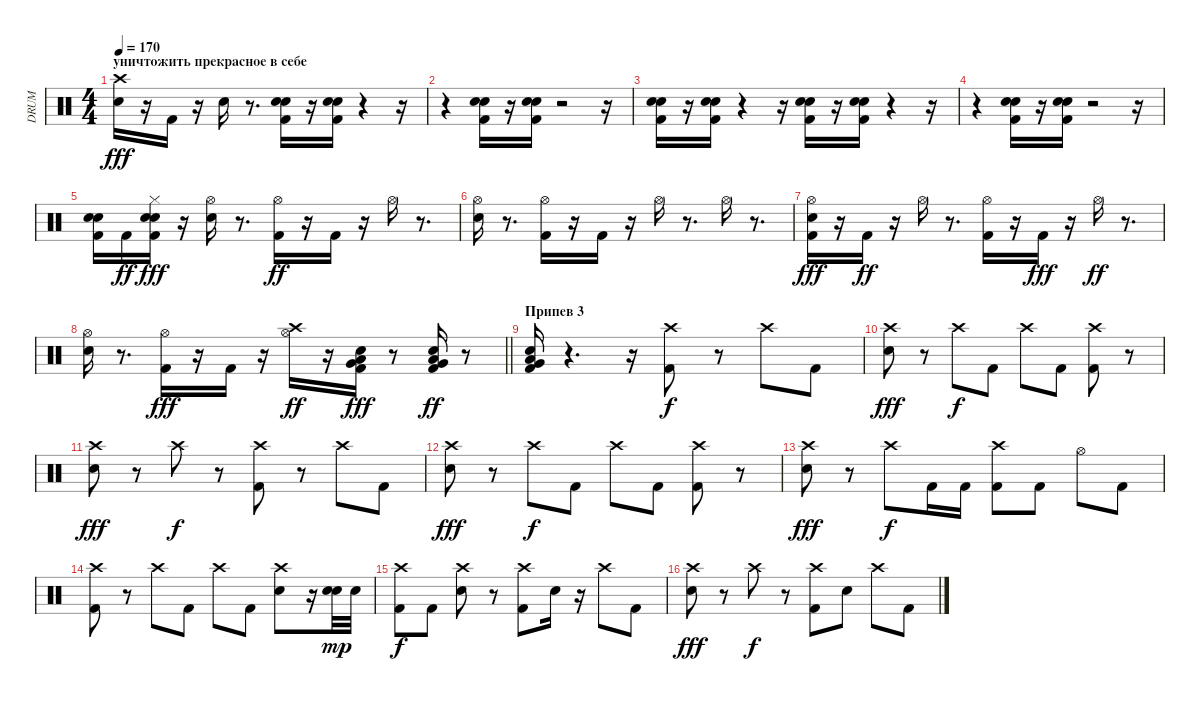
\track ("DRUM" "DRUM") {instrument percussion}
\staff {score}
\articulation defaults
\ts (4 4)
\section ("" "уничтожить прекрасное в себе")
\tempo 170
\clef neutral
\ks c
("Crash high (hit)" "Electric Snare (hit)").16{dy fff} r.16 "Kick (hit) 2".16 r.16 "Snare (hit) 2".16 r.8{d} ("Electric Snare (hit)" "Kick (hit) 2" "Snare (hit) 2").16 r.16 ("Electric Snare (hit)" "Kick (hit) 2" "Snare (hit) 2").16 r.4 r.16 |
r.4 ("Electric Snare (hit)" "Kick (hit) 2" "Snare (hit) 2").16 r.16 ("Electric Snare (hit)" "Kick (hit) 2" "Snare (hit) 2").16 r.2 r.16 |
("Electric Snare (hit)" "Kick (hit) 2" "Snare (hit) 2").16 r.16 ("Electric Snare (hit)" "Kick (hit) 2" "Snare (hit) 2").16 r.4 r.16 ("Electric Snare (hit)" "Kick (hit) 2" "Snare (hit) 2").16 r.16 ("Electric Snare (hit)" "Kick (hit) 2" "Snare (hit) 2").16 r.4 r.16 |
r.4 ("Electric Snare (hit)" "Kick (hit) 2" "Snare (hit) 2").16 r.16 ("Electric Snare (hit)" "Kick (hit) 2" "Snare (hit) 2").16 r.2 r.16 |
("Electric Snare (hit)" "Kick (hit) 2" "Snare (hit) 2").16 "Kick (hit) 2".16{dy ff} ("Hi-Hat (closed)" "Electric Snare (hit)" "Kick (hit) 2" "Snare (hit) 2").16{dy fff} r.16 ("Electric Snare (hit)" "Hi-Hat (open)").16 r.8{d} ("Kick (hit) 2" "Hi-Hat (open)").16{dy ff} r.16 "Kick (hit) 2".16 r.16 "Hi-Hat (open)".16 r.8{d} |
("Electric Snare (hit)" "Hi-Hat (open)").16 r.8{d} ("Hi-Hat (open)" "Kick (hit) 2").16 r.16 "Kick (hit) 2".16 r.16 "Hi-Hat (open)".16 r.8{d} "Hi-Hat (open)".16 r.8{d} |
("Hi-Hat (open)" "Kick (hit) 2" "Electric Snare (hit)").16{dy fff} r.16 "Kick (hit) 2".16{dy ff} r.16 "Hi-Hat (open)".16 r.8{d} ("Kick (hit) 2" "Hi-Hat (open)").16 r.16 "Kick (hit) 2".16{dy fff} r.16 "Hi-Hat (open)".16{dy ff} r.8{d} |
\barLineRight lightlight
("Electric Snare (hit)" "Hi-Hat (open)").16 r.8{d} ("Hi-Hat (open)" "Kick (hit) 2").16{dy fff} r.16 "Kick (hit) 2".16 r.16 ("Hi-Hat (open)" "Crash high (hit)").16{dy ff} r.16 ("Very Low Tom (hit)" "Low Floor Tom (hit)" "Snare (hit) 2" "Kick (hit) 2").16{dy fff} r.8 ("Very Low Tom (hit)" "Low Floor Tom (hit)" "Snare (hit) 2" "Kick (hit) 2").16{dy ff} r.8 |
\section ("" "Припев 3")
("Very Low Tom (hit)" "Low Floor Tom (hit)" "Snare (hit) 2" "Kick (hit) 2").16 r.4{d} r.16 ("Crash high (hit)" "Kick (hit) 2").8{dy f} r.8 "Crash high (hit)".8 "Kick (hit) 2".8 |
("Crash high (hit)" "Snare (hit) 2").8{dy fff} r.8 "Crash high (hit)".8{dy f} "Kick (hit) 2".8 "Crash high (hit)".8 "Kick (hit) 2".8 ("Crash high (hit)" "Kick (hit) 2").8 r.8 |
("Crash high (hit)" "Snare (hit) 2").8{dy fff} r.8 "Crash high (hit)".8{dy f} r.8 ("Crash high (hit)" "Kick (hit) 2").8 r.8 "Crash high (hit)".8 "Kick (hit) 2".8 |
("Crash high (hit)" "Snare (hit) 2").8{dy fff} r.8 "Crash high (hit)".8{dy f} "Kick (hit) 2".8 "Crash high (hit)".8 "Kick (hit) 2".8 ("Crash high (hit)" "Kick (hit) 2").8 r.8 |
("Crash high (hit)" "Snare (hit) 2").8{dy fff} r.8 "Crash high (hit)".8{dy f} "Kick (hit) 2".16 "Kick (hit) 2".16 ("Crash high (hit)" "Kick (hit) 2").8 "Kick (hit) 2".8 "Hi-Hat (open)".8 "Kick (hit) 2".8 |
("Kick (hit) 2" "Crash high (hit)").8 r.8 "Crash high (hit)".8 "Kick (hit) 2".8 "Crash high (hit)".8 "Kick (hit) 2".8 ("Snare (hit) 2" "Crash high (hit)").8 r.16 ("Snare (hit) 2" "Snare (hit) 2").32{dy mp} "Snare (hit) 2".32 |
("Kick (hit) 2" "Crash high (hit)").8{dy f} "Kick (hit) 2".8 ("Snare (hit) 2" "Crash high (hit)").8 r.8 ("Crash high (hit)" "Kick (hit) 2").8 "Electric Snare (hit)".16 r.16 "Crash high (hit)".8 "Kick (hit) 2".8 |
("Snare (hit) 2" "Crash high (hit)").8{dy fff} r.8 "Crash high (hit)".8{dy f} r.8 ("Kick (hit) 2" "Crash high (hit)").8 "Snare (hit) 2".8 "Crash high (hit)".8 "Kick (hit) 2".8
